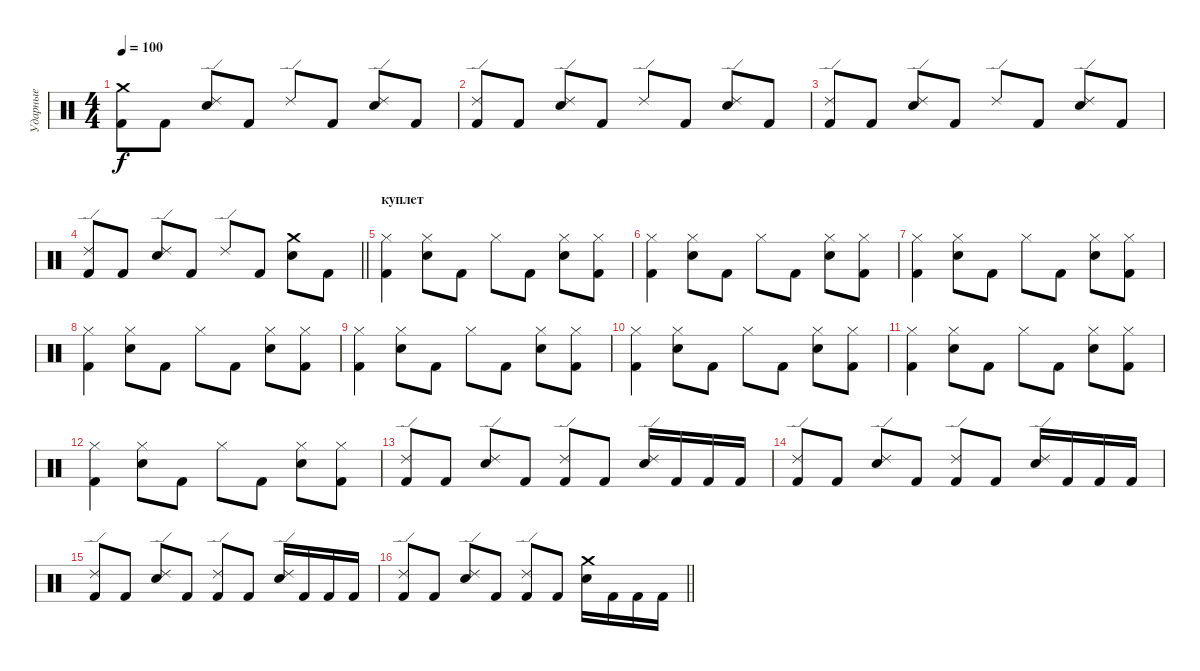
\track ("Ударные" "Ударные") {instrument percussion}
\staff {score}
\articulation defaults
\ts (4 4)
\tempo 100
\clef neutral
\ks c
("Kick (hit) 2" "Crash medium (hit)").8{dy f} "Kick (hit) 2".8 ("Electric Snare (hit)" "Ride (edge) 2").8 "Kick (hit) 2".8 "Ride (edge) 2".8 "Kick (hit) 2".8 ("Electric Snare (hit)" "Ride (edge) 2").8 "Kick (hit) 2".8 |
("Kick (hit) 2" "Ride (edge) 2").8 "Kick (hit) 2".8 ("Electric Snare (hit)" "Ride (edge) 2").8 "Kick (hit) 2".8 "Ride (edge) 2".8 "Kick (hit) 2".8 ("Electric Snare (hit)" "Ride (edge) 2").8 "Kick (hit) 2".8 |
("Kick (hit) 2" "Ride (edge) 2").8 "Kick (hit) 2".8 ("Electric Snare (hit)" "Ride (edge) 2").8 "Kick (hit) 2".8 "Ride (edge) 2".8 "Kick (hit) 2".8 ("Electric Snare (hit)" "Ride (edge) 2").8 "Kick (hit) 2".8 |
\barLineRight lightlight
("Kick (hit) 2" "Ride (edge) 2").8 "Kick (hit) 2".8 ("Electric Snare (hit)" "Ride (edge) 2").8 "Kick (hit) 2".8 "Ride (edge) 2".8 "Kick (hit) 2".8 ("Electric Snare (hit)" "Crash medium (hit)").8 "Kick (hit) 2".8 |
\section ("" "куплет")
("Kick (hit) 2" "Hi-Hat (closed)").4 ("Electric Snare (hit)" "Hi-Hat (closed)").8 "Kick (hit) 2".8 "Hi-Hat (closed)".8 "Kick (hit) 2".8 ("Electric Snare (hit)" "Hi-Hat (closed)").8 ("Kick (hit) 2" "Hi-Hat (closed)").8 |
("Kick (hit) 2" "Hi-Hat (closed)").4 ("Electric Snare (hit)" "Hi-Hat (closed)").8 "Kick (hit) 2".8 "Hi-Hat (closed)".8 "Kick (hit) 2".8 ("Electric Snare (hit)" "Hi-Hat (closed)").8 ("Kick (hit) 2" "Hi-Hat (closed)").8 |
("Kick (hit) 2" "Hi-Hat (closed)").4 ("Electric Snare (hit)" "Hi-Hat (closed)").8 "Kick (hit) 2".8 "Hi-Hat (closed)".8 "Kick (hit) 2".8 ("Electric Snare (hit)" "Hi-Hat (closed)").8 ("Kick (hit) 2" "Hi-Hat (closed)").8 |
("Kick (hit) 2" "Hi-Hat (closed)").4 ("Electric Snare (hit)" "Hi-Hat (closed)").8 "Kick (hit) 2".8 "Hi-Hat (closed)".8 "Kick (hit) 2".8 ("Electric Snare (hit)" "Hi-Hat (closed)").8 ("Kick (hit) 2" "Hi-Hat (closed)").8 |
("Kick (hit) 2" "Hi-Hat (closed)").4 ("Electric Snare (hit)" "Hi-Hat (closed)").8 "Kick (hit) 2".8 "Hi-Hat (closed)".8 "Kick (hit) 2".8 ("Electric Snare (hit)" "Hi-Hat (closed)").8 ("Kick (hit) 2" "Hi-Hat (closed)").8 |
("Kick (hit) 2" "Hi-Hat (closed)").4 ("Electric Snare (hit)" "Hi-Hat (closed)").8 "Kick (hit) 2".8 "Hi-Hat (closed)".8 "Kick (hit) 2".8 ("Electric Snare (hit)" "Hi-Hat (closed)").8 ("Kick (hit) 2" "Hi-Hat (closed)").8 |
("Kick (hit) 2" "Hi-Hat (closed)").4 ("Electric Snare (hit)" "Hi-Hat (closed)").8 "Kick (hit) 2".8 "Hi-Hat (closed)".8 "Kick (hit) 2".8 ("Electric Snare (hit)" "Hi-Hat (closed)").8 ("Kick (hit) 2" "Hi-Hat (closed)").8 |
("Kick (hit) 2" "Hi-Hat (closed)").4 ("Electric Snare (hit)" "Hi-Hat (closed)").8 "Kick (hit) 2".8 "Hi-Hat (closed)".8 "Kick (hit) 2".8 ("Electric Snare (hit)" "Hi-Hat (closed)").8 ("Kick (hit) 2" "Hi-Hat (closed)").8 |
("Kick (hit) 2" "Ride (edge) 2").8 "Kick (hit) 2".8 ("Electric Snare (hit)" "Ride (edge) 2").8 "Kick (hit) 2".8 ("Kick (hit) 2" "Ride (edge) 2").8 "Kick (hit) 2".8 ("Electric Snare (hit)" "Ride (edge) 2").16 "Kick (hit) 2".16 "Kick (hit) 2".16 "Kick (hit) 2".16 |
("Kick (hit) 2" "Ride (edge) 2").8 "Kick (hit) 2".8 ("Electric Snare (hit)" "Ride (edge) 2").8 "Kick (hit) 2".8 ("Kick (hit) 2" "Ride (edge) 2").8 "Kick (hit) 2".8 ("Electric Snare (hit)" "Ride (edge) 2").16 "Kick (hit) 2".16 "Kick (hit) 2".16 "Kick (hit) 2".16 |
("Kick (hit) 2" "Ride (edge) 2").8 "Kick (hit) 2".8 ("Electric Snare (hit)" "Ride (edge) 2").8 "Kick (hit) 2".8 ("Kick (hit) 2" "Ride (edge) 2").8 "Kick (hit) 2".8 ("Electric Snare (hit)" "Ride (edge) 2").16 "Kick (hit) 2".16 "Kick (hit) 2".16 "Kick (hit) 2".16 |
\barLineRight lightlight
("Kick (hit) 2" "Ride (edge) 2").8 "Kick (hit) 2".8 ("Electric Snare (hit)" "Ride (edge) 2").8 "Kick (hit) 2".8 ("Kick (hit) 2" "Ride (edge) 2").8 "Kick (hit) 2".8 ("Electric Snare (hit)" "Crash medium (hit)").16 "Kick (hit) 2".16 "Kick (hit) 2".16 "Kick (hit) 2".16
